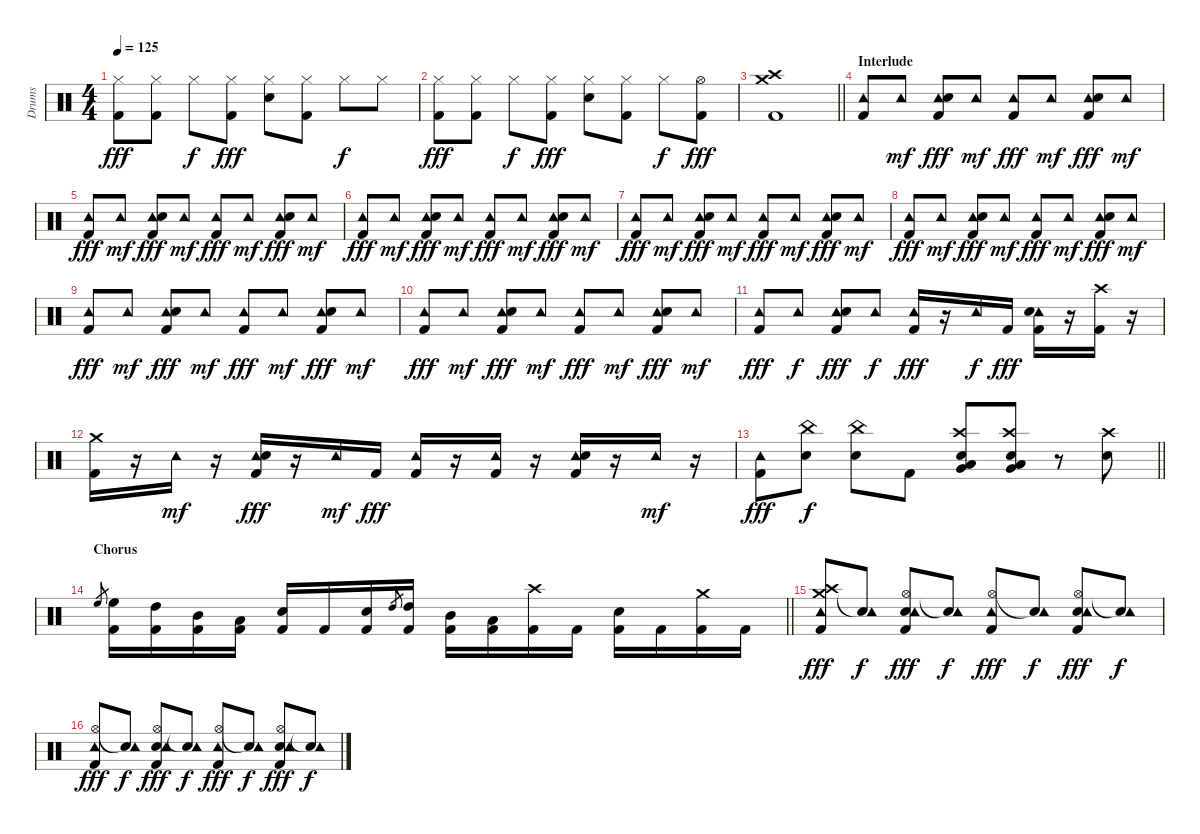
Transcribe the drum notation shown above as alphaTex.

\track ("Drums" "Drums") {instrument percussion}
\staff {score}
\articulation defaults
\ts (4 4)
\tempo 125
\clef neutral
\ks c
("Hi-Hat (closed)" "Kick (hit) 2").8{dy fff} ("Hi-Hat (closed)" "Kick (hit) 2").8 "Hi-Hat (closed)".8{dy f} ("Hi-Hat (closed)" "Kick (hit) 2").8{dy fff} ("Hi-Hat (closed)" "Electric Snare (hit)").8 ("Hi-Hat (closed)" "Kick (hit) 2").8 "Hi-Hat (closed)".8{dy f} "Hi-Hat (closed)".8 |
("Hi-Hat (closed)" "Kick (hit) 2").8{dy fff} ("Hi-Hat (closed)" "Kick (hit) 2").8 "Hi-Hat (closed)".8{dy f} ("Hi-Hat (closed)" "Kick (hit) 2").8{dy fff} ("Hi-Hat (closed)" "Electric Snare (hit)").8 ("Hi-Hat (closed)" "Kick (hit) 2").8 "Hi-Hat (closed)".8{dy f} ("Hi-Hat (open)" "Kick (hit) 2").8{dy fff} |
\barLineRight lightlight
("Crash high (hit)" "Kick (hit) 2" "Crash medium (hit)").1 |
\section ("" "Interlude")
("Tambourine (hit)" "Kick (hit) 2").8 "Tambourine (hit)".8{dy mf} ("Tambourine (hit)" "Electric Snare (hit)" "Kick (hit) 2").8{dy fff} "Tambourine (hit)".8{dy mf} ("Tambourine (hit)" "Kick (hit) 2").8{dy fff} "Tambourine (hit)".8{dy mf} ("Tambourine (hit)" "Electric Snare (hit)" "Kick (hit) 2").8{dy fff} "Tambourine (hit)".8{dy mf} |
("Tambourine (hit)" "Kick (hit) 2").8{dy fff} "Tambourine (hit)".8{dy mf} ("Tambourine (hit)" "Electric Snare (hit)" "Kick (hit) 2").8{dy fff} "Tambourine (hit)".8{dy mf} ("Tambourine (hit)" "Kick (hit) 2").8{dy fff} "Tambourine (hit)".8{dy mf} ("Tambourine (hit)" "Electric Snare (hit)" "Kick (hit) 2").8{dy fff} "Tambourine (hit)".8{dy mf} |
("Tambourine (hit)" "Kick (hit) 2").8{dy fff} "Tambourine (hit)".8{dy mf} ("Tambourine (hit)" "Electric Snare (hit)" "Kick (hit) 2").8{dy fff} "Tambourine (hit)".8{dy mf} ("Tambourine (hit)" "Kick (hit) 2").8{dy fff} "Tambourine (hit)".8{dy mf} ("Tambourine (hit)" "Electric Snare (hit)" "Kick (hit) 2").8{dy fff} "Tambourine (hit)".8{dy mf} |
("Tambourine (hit)" "Kick (hit) 2").8{dy fff} "Tambourine (hit)".8{dy mf} ("Tambourine (hit)" "Electric Snare (hit)" "Kick (hit) 2").8{dy fff} "Tambourine (hit)".8{dy mf} ("Tambourine (hit)" "Kick (hit) 2").8{dy fff} "Tambourine (hit)".8{dy mf} ("Tambourine (hit)" "Electric Snare (hit)" "Kick (hit) 2").8{dy fff} "Tambourine (hit)".8{dy mf} |
("Tambourine (hit)" "Kick (hit) 2").8{dy fff} "Tambourine (hit)".8{dy mf} ("Tambourine (hit)" "Electric Snare (hit)" "Kick (hit) 2").8{dy fff} "Tambourine (hit)".8{dy mf} ("Tambourine (hit)" "Kick (hit) 2").8{dy fff} "Tambourine (hit)".8{dy mf} ("Tambourine (hit)" "Electric Snare (hit)" "Kick (hit) 2").8{dy fff} "Tambourine (hit)".8{dy mf} |
("Tambourine (hit)" "Kick (hit) 2").8{dy fff} "Tambourine (hit)".8{dy mf} ("Tambourine (hit)" "Electric Snare (hit)" "Kick (hit) 2").8{dy fff} "Tambourine (hit)".8{dy mf} ("Tambourine (hit)" "Kick (hit) 2").8{dy fff} "Tambourine (hit)".8{dy mf} ("Tambourine (hit)" "Electric Snare (hit)" "Kick (hit) 2").8{dy fff} "Tambourine (hit)".8{dy mf} |
("Tambourine (hit)" "Kick (hit) 2").8{dy fff} "Tambourine (hit)".8{dy mf} ("Tambourine (hit)" "Electric Snare (hit)" "Kick (hit) 2").8{dy fff} "Tambourine (hit)".8{dy mf} ("Tambourine (hit)" "Kick (hit) 2").8{dy fff} "Tambourine (hit)".8{dy mf} ("Tambourine (hit)" "Electric Snare (hit)" "Kick (hit) 2").8{dy fff} "Tambourine (hit)".8{dy mf} |
("Tambourine (hit)" "Kick (hit) 2").8{dy fff} "Tambourine (hit)".8{dy f} ("Tambourine (hit)" "Electric Snare (hit)" "Kick (hit) 2").8{dy fff} "Tambourine (hit)".8{dy f} ("Tambourine (hit)" "Kick (hit) 2").16{dy fff} r.16 "Tambourine (hit)".16{dy f} "Kick (hit) 2".16{dy fff} ("Tambourine (hit)" "Electric Snare (hit)" "Kick (hit) 2").16 r.16 ("Crash high (hit)" "Kick (hit) 2").16 r.16 |
("Crash medium (hit)" "Kick (hit) 2").16 r.16 "Tambourine (hit)".16{dy mf} r.16 ("Tambourine (hit)" "Electric Snare (hit)" "Kick (hit) 2").16{dy fff} r.16 "Tambourine (hit)".16{dy mf} "Kick (hit) 2".16{dy fff} ("Tambourine (hit)" "Kick (hit) 2").16 r.16 ("Tambourine (hit)" "Kick (hit) 2").16 r.16 ("Tambourine (hit)" "Electric Snare (hit)" "Kick (hit) 2").16 r.16 "Tambourine (hit)".16{dy mf} r.16 |
\barLineRight lightlight
("Kick (hit) 2" "Tambourine (hit)").8{dy fff} ("Electric Snare (hit)" "China (hit)").8{dy f} ("Electric Snare (hit)" "China (hit)").8 "Kick (hit) 2".8 ("Electric Snare (hit)" "Low Tom (hit)" "Very Low Tom (hit)" "Crash high (hit)").8 ("Electric Snare (hit)" "Low Tom (hit)" "Very Low Tom (hit)" "Crash high (hit)").8 r.8 ("Electric Snare (hit)" "Crash high (hit)").8 |
\section ("" "Chorus")
\barLineRight lightlight "High Floor Tom (hit)".8{gr}
("High Floor Tom (hit)" "Kick (hit) 2").16 ("High Tom (hit)" "Kick (hit) 2").16 ("Mid Tom (hit)" "Kick (hit) 2").16 ("Low Tom (hit)" "Kick (hit) 2").16 ("Electric Snare (hit)" "Kick (hit) 2").16 "Kick (hit) 2".16 ("Electric Snare (hit)" "Kick (hit) 2").16 "High Tom (hit)".8{gr} ("High Tom (hit)" "Kick (hit) 2").16 ("Mid Tom (hit)" "Kick (hit) 2").16 ("Low Tom (hit)" "Kick (hit) 2").16 ("Crash high (hit)" "Kick (hit) 2").16 "Kick (hit) 2".16 ("Electric Snare (hit)" "Kick (hit) 2").16 "Kick (hit) 2".16 ("Crash medium (hit)" "Kick (hit) 2").16 "Kick (hit) 2".16 |
("Crash high (hit)" "Kick (hit) 2" "Crash medium (hit)" "Tambourine (hit)").8{dy fff} ("Snare (hit)"{t} "Tambourine (hit)").8{dy f} ("Hi-Hat (open)" "Kick (hit) 2" "Electric Snare (hit)" "Tambourine (hit)").8{dy fff} ("Snare (hit)"{t} "Tambourine (hit)").8{dy f} ("Hi-Hat (open)" "Kick (hit) 2" "Tambourine (hit)").8{dy fff} ("Snare (hit)"{t} "Tambourine (hit)").8{dy f} ("Hi-Hat (open)" "Kick (hit) 2" "Electric Snare (hit)" "Tambourine (hit)").8{dy fff} ("Snare (hit)"{t} "Tambourine (hit)").8{dy f} |
("Hi-Hat (open)" "Kick (hit) 2" "Tambourine (hit)").8{dy fff} ("Snare (hit)"{t} "Tambourine (hit)").8{dy f} ("Hi-Hat (open)" "Kick (hit) 2" "Electric Snare (hit)" "Tambourine (hit)").8{dy fff} ("Snare (hit)"{t} "Tambourine (hit)").8{dy f} ("Hi-Hat (open)" "Kick (hit) 2" "Tambourine (hit)").8{dy fff} ("Snare (hit)"{t} "Tambourine (hit)").8{dy f} ("Hi-Hat (open)" "Kick (hit) 2" "Electric Snare (hit)" "Tambourine (hit)").8{dy fff} ("Snare (hit)"{t} "Tambourine (hit)").8{dy f}
